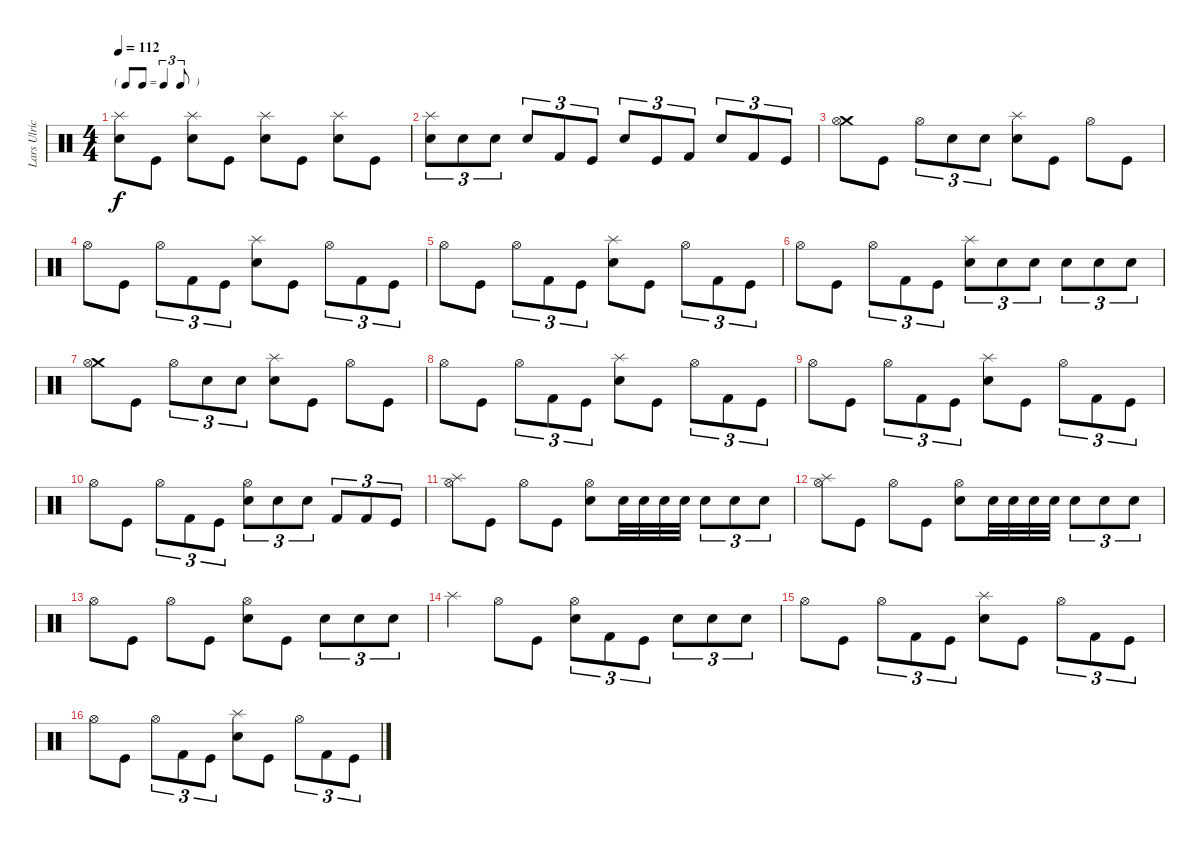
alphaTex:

\track ("Lars Ulrich (Drums)" "Lars Ulric") {instrument percussion}
\staff {score}
\articulation defaults
\ts (4 4)
\tf triplet8th
\tempo 112
\clef neutral
\ks c
("Electric Snare (hit)" "Splash (hit)").8{dy f} "Kick (hit)".8 ("Electric Snare (hit)" "Splash (hit)").8 "Kick (hit)".8 ("Electric Snare (hit)" "Splash (hit)").8 "Kick (hit)".8 ("Electric Snare (hit)" "Splash (hit)").8 "Kick (hit)".8 |
("Splash (hit)" "Electric Snare (hit)").8{tu (3 2)} "Electric Snare (hit)".8{tu (3 2)} "Electric Snare (hit)".8{tu (3 2)} "Snare (hit) 2".8{tu (3 2)} "Kick (hit) 2".8{tu (3 2)} "Kick (hit)".8{tu (3 2)} "Electric Snare (hit)".8{tu (3 2)} "Kick (hit)".8{tu (3 2)} "Kick (hit) 2".8{tu (3 2)} "Electric Snare (hit)".8{tu (3 2)} "Kick (hit) 2".8{tu (3 2)} "Kick (hit)".8{tu (3 2)} |
("Crash medium (hit)" "Hi-Hat (open)").8 "Kick (hit)".8 "Hi-Hat (open)".8{tu (3 2)} "Snare (hit) 2".8{tu (3 2)} "Snare (hit) 2".8{tu (3 2)} ("Electric Snare (hit)" "Splash (hit)").8 "Kick (hit)".8 "Hi-Hat (open)".8 "Kick (hit)".8 |
"Hi-Hat (open)".8 "Kick (hit)".8 "Hi-Hat (open)".8{tu (3 2)} "Kick (hit) 2".8{tu (3 2)} "Kick (hit)".8{tu (3 2)} ("Electric Snare (hit)" "Splash (hit)").8 "Kick (hit)".8 "Hi-Hat (open)".8{tu (3 2)} "Kick (hit) 2".8{tu (3 2)} "Kick (hit)".8{tu (3 2)} |
"Hi-Hat (open)".8 "Kick (hit)".8 "Hi-Hat (open)".8{tu (3 2)} "Kick (hit) 2".8{tu (3 2)} "Kick (hit)".8{tu (3 2)} ("Electric Snare (hit)" "Splash (hit)").8 "Kick (hit)".8 "Hi-Hat (open)".8{tu (3 2)} "Kick (hit) 2".8{tu (3 2)} "Kick (hit)".8{tu (3 2)} |
"Hi-Hat (open)".8 "Kick (hit)".8 "Hi-Hat (open)".8{tu (3 2)} "Kick (hit) 2".8{tu (3 2)} "Kick (hit)".8{tu (3 2)} ("Splash (hit)" "Electric Snare (hit)").8{tu (3 2)} "Electric Snare (hit)".8{tu (3 2)} "Electric Snare (hit)".8{tu (3 2)} "Electric Snare (hit)".8{tu (3 2)} "Electric Snare (hit)".8{tu (3 2)} "Electric Snare (hit)".8{tu (3 2)} |
("Crash medium (hit)" "Hi-Hat (open)").8 "Kick (hit)".8 "Hi-Hat (open)".8{tu (3 2)} "Snare (hit) 2".8{tu (3 2)} "Snare (hit) 2".8{tu (3 2)} ("Electric Snare (hit)" "Splash (hit)").8 "Kick (hit)".8 "Hi-Hat (open)".8 "Kick (hit)".8 |
"Hi-Hat (open)".8 "Kick (hit)".8 "Hi-Hat (open)".8{tu (3 2)} "Kick (hit) 2".8{tu (3 2)} "Kick (hit)".8{tu (3 2)} ("Electric Snare (hit)" "Splash (hit)").8 "Kick (hit)".8 "Hi-Hat (open)".8{tu (3 2)} "Kick (hit) 2".8{tu (3 2)} "Kick (hit)".8{tu (3 2)} |
"Hi-Hat (open)".8 "Kick (hit)".8 "Hi-Hat (open)".8{tu (3 2)} "Kick (hit) 2".8{tu (3 2)} "Kick (hit)".8{tu (3 2)} ("Electric Snare (hit)" "Splash (hit)").8 "Kick (hit)".8 "Hi-Hat (open)".8{tu (3 2)} "Kick (hit) 2".8{tu (3 2)} "Kick (hit)".8{tu (3 2)} |
"Hi-Hat (open)".8 "Kick (hit)".8 "Hi-Hat (open)".8{tu (3 2)} "Kick (hit) 2".8{tu (3 2)} "Kick (hit)".8{tu (3 2)} ("Hi-Hat (open)" "Electric Snare (hit)").8{tu (3 2)} "Electric Snare (hit)".8{tu (3 2)} "Electric Snare (hit)".8{tu (3 2)} "Kick (hit) 2".8{tu (3 2)} "Kick (hit) 2".8{tu (3 2)} "Kick (hit)".8{tu (3 2)} |
("Hi-Hat (open)" "Splash (hit)").8 "Kick (hit)".8 "Hi-Hat (open)".8 "Kick (hit)".8 ("Electric Snare (hit)" "Hi-Hat (open)").8 "Electric Snare (hit)".32 "Electric Snare (hit)".32 "Electric Snare (hit)".32 "Electric Snare (hit)".32 "Electric Snare (hit)".8{tu (3 2)} "Electric Snare (hit)".8{tu (3 2)} "Electric Snare (hit)".8{tu (3 2)} |
("Hi-Hat (open)" "Splash (hit)").8 "Kick (hit)".8 "Hi-Hat (open)".8 "Kick (hit)".8 ("Electric Snare (hit)" "Hi-Hat (open)").8 "Electric Snare (hit)".32 "Electric Snare (hit)".32 "Electric Snare (hit)".32 "Electric Snare (hit)".32 "Electric Snare (hit)".8{tu (3 2)} "Electric Snare (hit)".8{tu (3 2)} "Electric Snare (hit)".8{tu (3 2)} |
"Hi-Hat (open)".8 "Kick (hit)".8 "Hi-Hat (open)".8 "Kick (hit)".8 ("Electric Snare (hit)" "Hi-Hat (open)").8 "Kick (hit)".8 "Electric Snare (hit)".8{tu (3 2)} "Electric Snare (hit)".8{tu (3 2)} "Electric Snare (hit)".8{tu (3 2)} |
"Splash (hit)".4 "Hi-Hat (open)".8 "Kick (hit)".8 ("Electric Snare (hit)" "Hi-Hat (open)").8{tu (3 2)} "Kick (hit) 2".8{tu (3 2)} "Kick (hit)".8{tu (3 2)} "Electric Snare (hit)".8{tu (3 2)} "Electric Snare (hit)".8{tu (3 2)} "Electric Snare (hit)".8{tu (3 2)} |
"Hi-Hat (open)".8 "Kick (hit)".8 "Hi-Hat (open)".8{tu (3 2)} "Kick (hit) 2".8{tu (3 2)} "Kick (hit)".8{tu (3 2)} ("Electric Snare (hit)" "Splash (hit)").8 "Kick (hit)".8 "Hi-Hat (open)".8{tu (3 2)} "Kick (hit) 2".8{tu (3 2)} "Kick (hit)".8{tu (3 2)} |
"Hi-Hat (open)".8 "Kick (hit)".8 "Hi-Hat (open)".8{tu (3 2)} "Kick (hit) 2".8{tu (3 2)} "Kick (hit)".8{tu (3 2)} ("Electric Snare (hit)" "Splash (hit)").8 "Kick (hit)".8 "Hi-Hat (open)".8{tu (3 2)} "Kick (hit) 2".8{tu (3 2)} "Kick (hit)".8{tu (3 2)}
